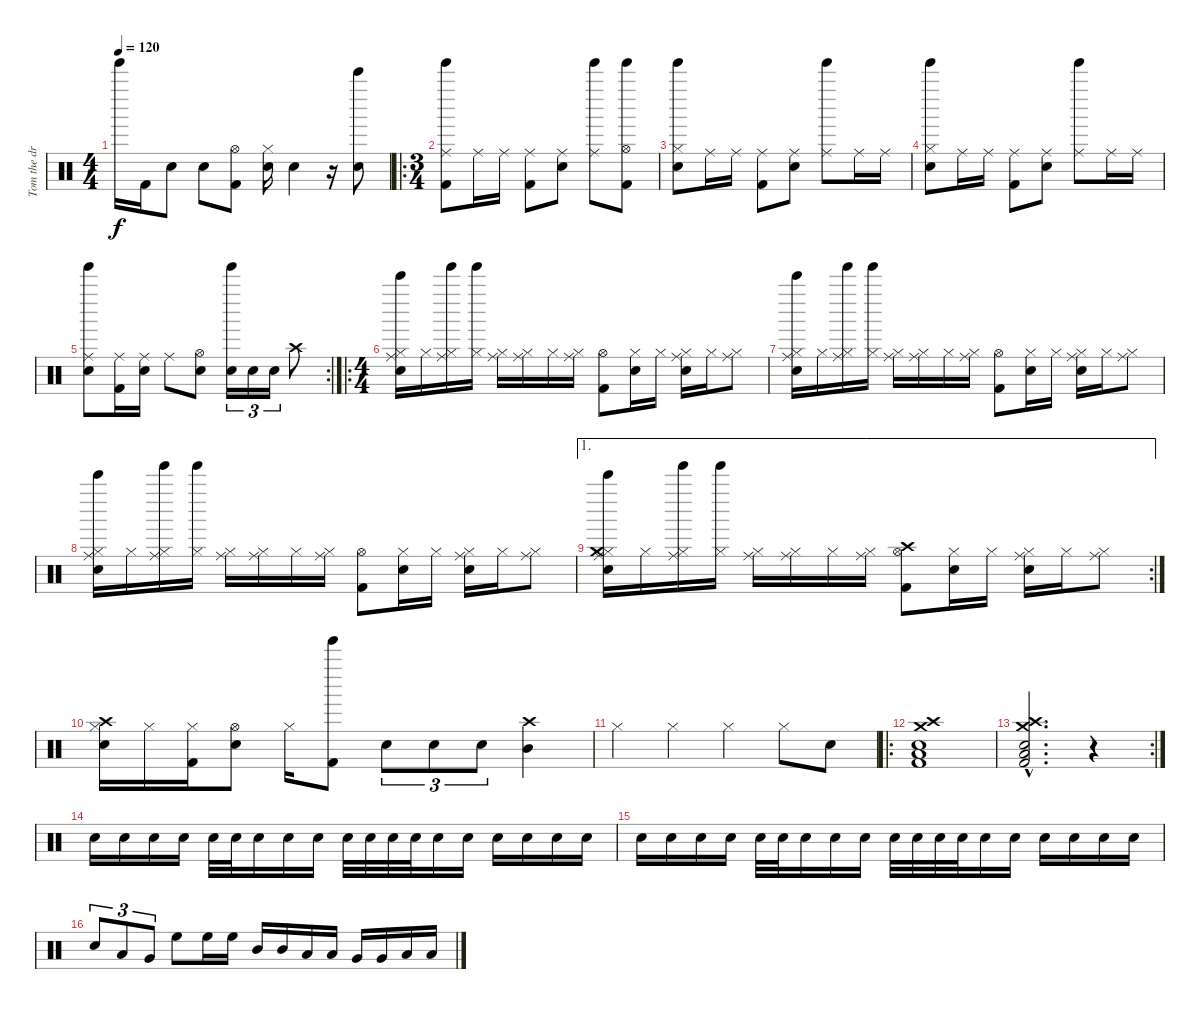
\track ("Tom the drummer" "Tom the dr") {instrument percussion}
\staff {score}
\articulation defaults
\ts (4 4)
\tempo 120
\clef neutral
\ks c "Tinkle Bell (hit)".16{dy f} "Kick (hit) 2".16 "Snare (hit) 2".8 "Snare (hit) 2".8
("Hi-Hat (open)" "Kick (hit) 2").8 ("Hi-Hat (closed)" "Snare (hit) 2").16 "Snare (hit) 2".4 r.16 ("Bell Tree (hit)" "Snare (hit) 2").8 |
\ro
\ts (3 4)
("Tinkle Bell (hit)" "Ride (middle)" "Kick (hit) 2").8 "Ride (middle)".16 "Ride (middle)".16 ("Ride (middle)" "Kick (hit) 2").8 ("Ride (middle)" "Snare (hit) 2").8 ("Tinkle Bell (hit)" "Ride (middle)").8 ("Tinkle Bell (hit)" "Hi-Hat (open)" "Kick (hit) 2").8 |
("Tinkle Bell (hit)" "Hi-Hat (closed)" "Snare (hit) 2").8 "Ride (middle)".16 "Ride (middle)".16 ("Ride (middle)" "Kick (hit) 2").8 ("Ride (middle)" "Snare (hit) 2").8 ("Tinkle Bell (hit)" "Ride (middle)").8 "Ride (middle)".16 "Ride (middle)".16 |
("Tinkle Bell (hit)" "Hi-Hat (closed)" "Snare (hit) 2").8 "Ride (middle)".16 "Ride (middle)".16 ("Ride (middle)" "Kick (hit) 2").8 ("Ride (middle)" "Snare (hit) 2").8 ("Tinkle Bell (hit)" "Ride (middle)").8 "Ride (middle)".16 "Ride (middle)".16 |
\rc 2
("Ride (middle)" "Tinkle Bell (hit)" "Snare (hit) 2").8 ("Ride (middle)" "Kick (hit) 2").16 ("Ride (middle)" "Snare (hit) 2").16 "Ride (middle)".8 ("Hi-Hat (open)" "Snare (hit) 2").8 ("Tinkle Bell (hit)" "Snare (hit) 2").16{tu (3 2)} "Snare (hit) 2".16{tu (3 2)} "Snare (hit) 2".16{tu (3 2)} "Crash high (hit)".8 |
\ro
\ts (4 4)
("Ride (middle)" "Hi-Hat (closed)" "Bell Tree (hit)" "Snare (hit) 2").16 "Hi-Hat (closed)".16 ("Ride (middle)" "Hi-Hat (closed)" "Tinkle Bell (hit)").16 ("Hi-Hat (closed)" "Tinkle Bell (hit)").16 ("Ride (middle)" "Hi-Hat (closed)").16 ("Ride (middle)" "Hi-Hat (closed)").16 "Hi-Hat (closed)".16 ("Ride (middle)" "Hi-Hat (closed)").16 ("Hi-Hat (open)" "Kick (hit) 2").8 ("Hi-Hat (closed)" "Snare (hit) 2").16 "Hi-Hat (closed)".16 ("Ride (middle)" "Hi-Hat (closed)" "Snare (hit) 2").16 "Hi-Hat (closed)".16 ("Ride (middle)" "Hi-Hat (closed)").8 |
("Ride (middle)" "Hi-Hat (closed)" "Bell Tree (hit)" "Snare (hit) 2").16 "Hi-Hat (closed)".16 ("Ride (middle)" "Hi-Hat (closed)" "Tinkle Bell (hit)").16 ("Hi-Hat (closed)" "Tinkle Bell (hit)").16 ("Ride (middle)" "Hi-Hat (closed)").16 ("Ride (middle)" "Hi-Hat (closed)").16 "Hi-Hat (closed)".16 ("Ride (middle)" "Hi-Hat (closed)").16 ("Hi-Hat (open)" "Kick (hit) 2").8 ("Hi-Hat (closed)" "Snare (hit) 2").16 "Hi-Hat (closed)".16 ("Ride (middle)" "Hi-Hat (closed)" "Snare (hit) 2").16 "Hi-Hat (closed)".16 ("Ride (middle)" "Hi-Hat (closed)").8 |
("Ride (middle)" "Hi-Hat (closed)" "Bell Tree (hit)" "Snare (hit) 2").16 "Hi-Hat (closed)".16 ("Ride (middle)" "Hi-Hat (closed)" "Tinkle Bell (hit)").16 ("Hi-Hat (closed)" "Tinkle Bell (hit)").16 ("Ride (middle)" "Hi-Hat (closed)").16 ("Ride (middle)" "Hi-Hat (closed)").16 "Hi-Hat (closed)".16 ("Ride (middle)" "Hi-Hat (closed)").16 ("Hi-Hat (open)" "Kick (hit) 2").8 ("Hi-Hat (closed)" "Snare (hit) 2").16 "Hi-Hat (closed)".16 ("Ride (middle)" "Hi-Hat (closed)" "Snare (hit) 2").16 "Hi-Hat (closed)".16 ("Ride (middle)" "Hi-Hat (closed)").8 |
\ae 1
\rc 2
("Ride (middle)" "Hi-Hat (closed)" "Bell Tree (hit)" "Snare (hit) 2" "Crash medium (hit)").16 "Hi-Hat (closed)".16 ("Ride (middle)" "Hi-Hat (closed)" "Tinkle Bell (hit)").16 ("Hi-Hat (closed)" "Tinkle Bell (hit)").16 ("Ride (middle)" "Hi-Hat (closed)").16 ("Ride (middle)" "Hi-Hat (closed)").16 "Hi-Hat (closed)".16 ("Ride (middle)" "Hi-Hat (closed)").16 ("Hi-Hat (open)" "Kick (hit) 2" "Crash high (hit)").8 ("Hi-Hat (closed)" "Snare (hit) 2").16 "Hi-Hat (closed)".16 ("Ride (middle)" "Hi-Hat (closed)" "Snare (hit) 2").16 "Hi-Hat (closed)".16 ("Ride (middle)" "Hi-Hat (closed)").8 |
("Crash high (hit)" "Hi-Hat (closed)" "Snare (hit) 2").16 "Hi-Hat (closed)".16 ("Hi-Hat (closed)" "Kick (hit) 2").16 ("Hi-Hat (open)" "Snare (hit) 2").8 "Hi-Hat (closed)".16 ("Tinkle Bell (hit)" "Kick (hit) 2").8 "Snare (hit) 2".8{tu (3 2)} "Snare (hit) 2".8{tu (3 2)} "Snare (hit) 2".8{tu (3 2)} ("Crash high (hit)" "Mid Tom (hit)").4 |
"Hi-Hat (closed)".4 "Hi-Hat (closed)".4 "Hi-Hat (closed)".4 "Hi-Hat (closed)".8 "Snare (hit) 2".8 |
\ro
("Crash medium (hit)" "Crash high (hit)" "Low Tom (hit)" "Snare (hit) 2" "Kick (hit) 2").1{volume 14} |
\rc 2
("Crash medium (hit)"{hac} "Crash high (hit)"{hac} "Low Tom (hit)"{hac} "Snare (hit) 2"{hac} "Kick (hit) 2"{hac}).2{d} r.4{volume 0} |
"Snare (hit) 2".16{volume 14 balance 8} "Snare (hit) 2".16 "Snare (hit) 2".16 "Snare (hit) 2".16 "Snare (hit) 2".32 "Snare (hit) 2".32 "Snare (hit) 2".16 "Snare (hit) 2".16 "Snare (hit) 2".16 "Snare (hit) 2".32 "Snare (hit) 2".32 "Snare (hit) 2".32 "Snare (hit) 2".32 "Snare (hit) 2".16 "Snare (hit) 2".16 "Snare (hit) 2".16 "Snare (hit) 2".16 "Snare (hit) 2".16 "Snare (hit) 2".16 |
"Snare (hit) 2".16 "Snare (hit) 2".16 "Snare (hit) 2".16 "Snare (hit) 2".16 "Snare (hit) 2".32 "Snare (hit) 2".32 "Snare (hit) 2".16 "Snare (hit) 2".16 "Snare (hit) 2".16 "Snare (hit) 2".32 "Snare (hit) 2".32 "Snare (hit) 2".32 "Snare (hit) 2".32 "Snare (hit) 2".16 "Snare (hit) 2".16 "Snare (hit) 2".16 "Snare (hit) 2".16 "Snare (hit) 2".16 "Snare (hit) 2".16 |
"Snare (hit) 2".8{tu (3 2)} "Low Tom (hit)".8{tu (3 2)} "Very Low Tom (hit)".8{tu (3 2)} "High Floor Tom (hit)".8 "High Floor Tom (hit)".16 "High Floor Tom (hit)".16 "Mid Tom (hit)".16 "Mid Tom (hit)".16 "Low Tom (hit)".16 "Low Tom (hit)".16 "Very Low Tom (hit)".16 "Very Low Tom (hit)".16 "Low Floor Tom (hit)".16 "Low Floor Tom (hit)".16
